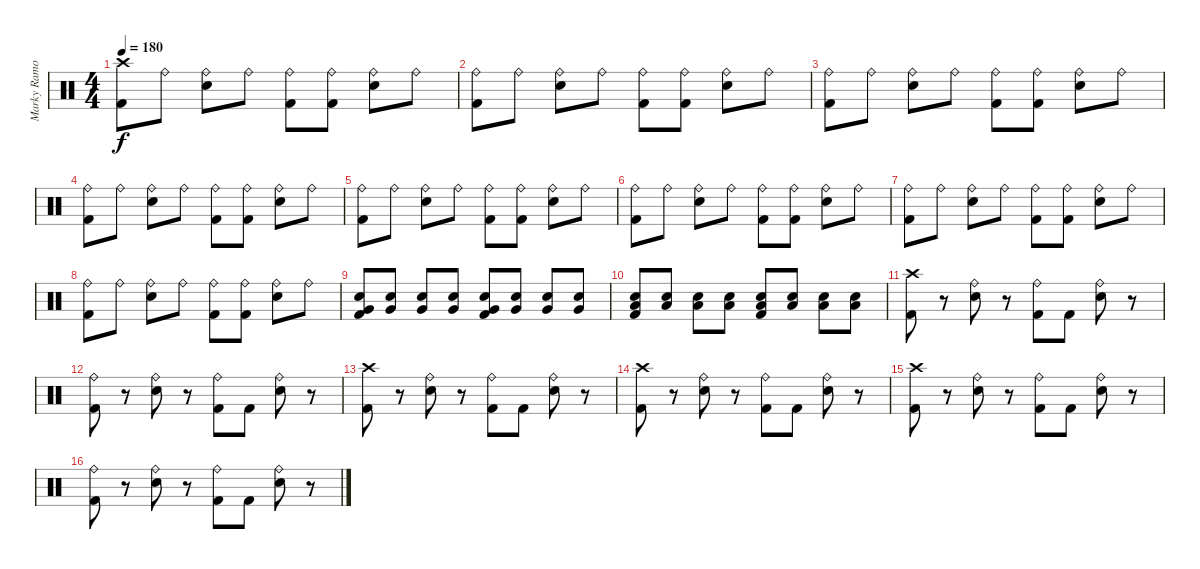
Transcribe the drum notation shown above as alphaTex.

\track ("Marky Ramone" "Marky Ramo") {instrument percussion}
\staff {score}
\articulation defaults
\ts (4 4)
\tempo 180
\clef neutral
\ks c
("Kick (hit) 2" "Crash high (hit)").8{dy f} "Ride (bell)".8 ("Electric Snare (hit)" "Ride (bell)").8 "Ride (bell)".8 ("Kick (hit) 2" "Ride (bell)").8 ("Kick (hit) 2" "Ride (bell)").8 ("Electric Snare (hit)" "Ride (bell)").8 "Ride (bell)".8 |
("Ride (bell)" "Kick (hit) 2").8 "Ride (bell)".8 ("Electric Snare (hit)" "Ride (bell)").8 "Ride (bell)".8 ("Ride (bell)" "Kick (hit) 2").8 ("Ride (bell)" "Kick (hit) 2").8 ("Electric Snare (hit)" "Ride (bell)").8 "Ride (bell)".8 |
("Kick (hit) 2" "Ride (bell)").8 "Ride (bell)".8 ("Electric Snare (hit)" "Ride (bell)").8 "Ride (bell)".8 ("Kick (hit) 2" "Ride (bell)").8 ("Kick (hit) 2" "Ride (bell)").8 ("Electric Snare (hit)" "Ride (bell)").8 "Ride (bell)".8 |
("Ride (bell)" "Kick (hit) 2").8 "Ride (bell)".8 ("Electric Snare (hit)" "Ride (bell)").8 "Ride (bell)".8 ("Ride (bell)" "Kick (hit) 2").8 ("Ride (bell)" "Kick (hit) 2").8 ("Electric Snare (hit)" "Ride (bell)").8 "Ride (bell)".8 |
("Kick (hit) 2" "Ride (bell)").8 "Ride (bell)".8 ("Electric Snare (hit)" "Ride (bell)").8 "Ride (bell)".8 ("Kick (hit) 2" "Ride (bell)").8 ("Kick (hit) 2" "Ride (bell)").8 ("Electric Snare (hit)" "Ride (bell)").8 "Ride (bell)".8 |
("Ride (bell)" "Kick (hit) 2").8 "Ride (bell)".8 ("Electric Snare (hit)" "Ride (bell)").8 "Ride (bell)".8 ("Ride (bell)" "Kick (hit) 2").8 ("Ride (bell)" "Kick (hit) 2").8 ("Electric Snare (hit)" "Ride (bell)").8 "Ride (bell)".8 |
("Kick (hit) 2" "Ride (bell)").8 "Ride (bell)".8 ("Electric Snare (hit)" "Ride (bell)").8 "Ride (bell)".8 ("Kick (hit) 2" "Ride (bell)").8 ("Kick (hit) 2" "Ride (bell)").8 ("Electric Snare (hit)" "Ride (bell)").8 "Ride (bell)".8 |
("Ride (bell)" "Kick (hit) 2").8 "Ride (bell)".8 ("Electric Snare (hit)" "Ride (bell)").8 "Ride (bell)".8 ("Ride (bell)" "Kick (hit) 2").8 ("Ride (bell)" "Kick (hit) 2").8 ("Electric Snare (hit)" "Ride (bell)").8 "Ride (bell)".8 |
("Very Low Tom (hit)" "Kick (hit) 2" "Electric Snare (hit)").8 ("Very Low Tom (hit)" "Electric Snare (hit)").8 ("Very Low Tom (hit)" "Electric Snare (hit)").8 ("Very Low Tom (hit)" "Electric Snare (hit)").8 ("Kick (hit) 2" "Very Low Tom (hit)" "Electric Snare (hit)").8 ("Very Low Tom (hit)" "Electric Snare (hit)").8 ("Very Low Tom (hit)" "Electric Snare (hit)").8 ("Very Low Tom (hit)" "Electric Snare (hit)").8 |
("Kick (hit) 2" "Electric Snare (hit)" "Low Floor Tom (hit)").8 ("Electric Snare (hit)" "Low Floor Tom (hit)").8 ("Electric Snare (hit)" "Low Floor Tom (hit)").8 ("Electric Snare (hit)" "Low Floor Tom (hit)").8 ("Kick (hit) 2" "Electric Snare (hit)" "Low Floor Tom (hit)").8 ("Electric Snare (hit)" "Low Floor Tom (hit)").8 ("Electric Snare (hit)" "Low Floor Tom (hit)").8 ("Electric Snare (hit)" "Low Floor Tom (hit)").8 |
("Crash high (hit)" "Kick (hit) 2").8 r.8 ("Electric Snare (hit)" "Ride (bell)").8 r.8 ("Kick (hit) 2" "Ride (bell)").8 "Kick (hit) 2".8 ("Electric Snare (hit)" "Ride (bell)").8 r.8 |
("Ride (bell)" "Kick (hit) 2").8 r.8 ("Ride (bell)" "Electric Snare (hit)").8 r.8 ("Ride (bell)" "Kick (hit) 2").8 "Kick (hit) 2".8 ("Ride (bell)" "Electric Snare (hit)").8 r.8 |
("Crash high (hit)" "Kick (hit) 2").8 r.8 ("Ride (bell)" "Electric Snare (hit)").8 r.8 ("Ride (bell)" "Kick (hit) 2").8 "Kick (hit) 2".8 ("Ride (bell)" "Electric Snare (hit)").8 r.8 |
("Crash high (hit)" "Kick (hit) 2").8 r.8 ("Ride (bell)" "Electric Snare (hit)").8 r.8 ("Ride (bell)" "Kick (hit) 2").8 "Kick (hit) 2".8 ("Ride (bell)" "Electric Snare (hit)").8 r.8 |
("Crash high (hit)" "Kick (hit) 2").8 r.8 ("Electric Snare (hit)" "Ride (bell)").8 r.8 ("Kick (hit) 2" "Ride (bell)").8 "Kick (hit) 2".8 ("Electric Snare (hit)" "Ride (bell)").8 r.8 |
("Ride (bell)" "Kick (hit) 2").8 r.8 ("Ride (bell)" "Electric Snare (hit)").8 r.8 ("Ride (bell)" "Kick (hit) 2").8 "Kick (hit) 2".8 ("Ride (bell)" "Electric Snare (hit)").8 r.8
